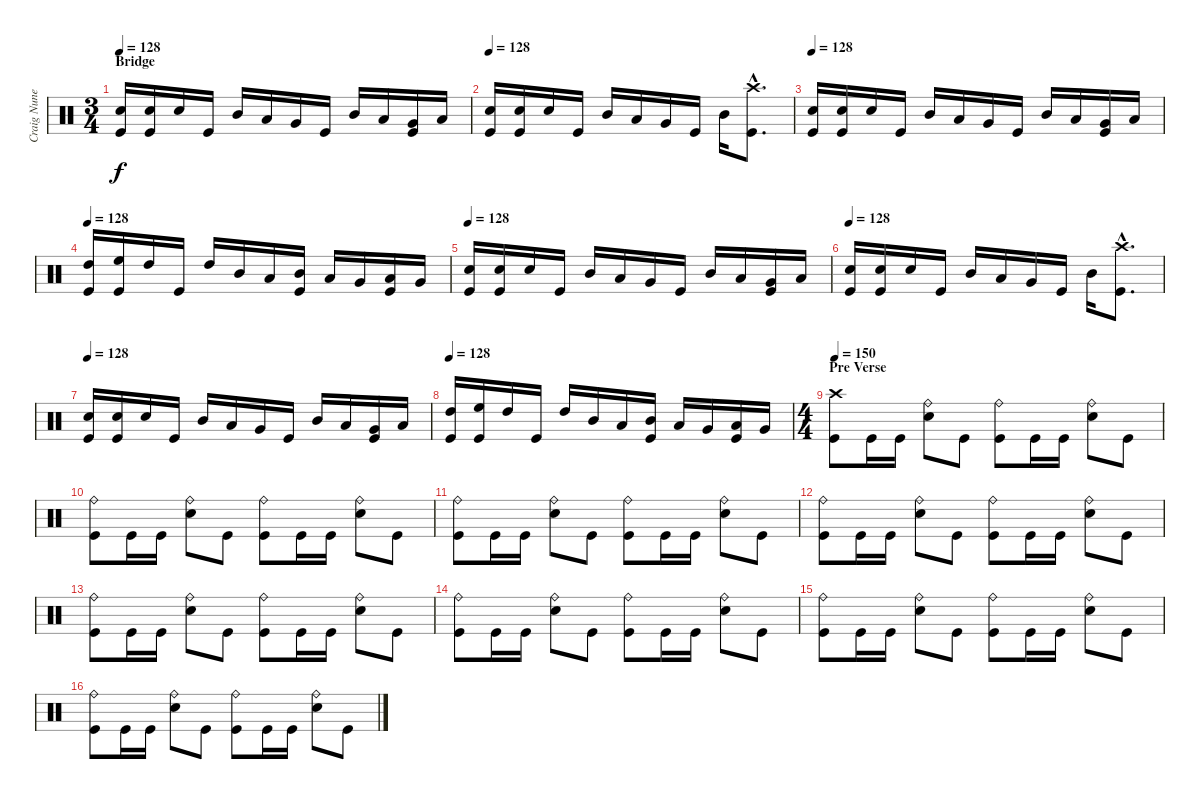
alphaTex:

\track ("Craig Nunenmacher" "Craig Nune") {instrument percussion}
\staff {score}
\articulation defaults
\ts (3 4)
\section ("" "Bridge")
\tempo 100
\tempo 128
\clef neutral
\ks c
("Snare (hit) 2" "Kick (hit)").16{dy f} ("Snare (hit) 2" "Kick (hit)").16 "Snare (hit) 2".16 "Kick (hit)".16 "Mid Tom (hit)".16 "Low Tom (hit)".16 "Very Low Tom (hit)".16 "Kick (hit)".16 "Mid Tom (hit)".16 "Low Tom (hit)".16 ("Very Low Tom (hit)" "Kick (hit)").16 "Low Tom (hit)".16 |
\tempo 128
("Snare (hit) 2" "Kick (hit)").16 ("Snare (hit) 2" "Kick (hit)").16 "Snare (hit) 2".16 "Kick (hit)".16 "Mid Tom (hit)".16 "Low Tom (hit)".16 "Very Low Tom (hit)".16 "Kick (hit)".16 "Mid Tom (hit)".16 ("Crash high (hit)"{hac} "Kick (hit)"{hac}).8{d} |
\tempo 128
("Snare (hit) 2" "Kick (hit)").16 ("Snare (hit) 2" "Kick (hit)").16 "Snare (hit) 2".16 "Kick (hit)".16 "Mid Tom (hit)".16 "Low Tom (hit)".16 "Very Low Tom (hit)".16 "Kick (hit)".16 "Mid Tom (hit)".16 "Low Tom (hit)".16 ("Very Low Tom (hit)" "Kick (hit)").16 "Low Tom (hit)".16 |
\tempo 128
("High Tom (hit)" "Kick (hit)").16 ("High Floor Tom (hit)" "Kick (hit)").16 "High Tom (hit)".16 "Kick (hit)".16 "High Tom (hit)".16 "Mid Tom (hit)".16 "Low Tom (hit)".16 ("Mid Tom (hit)" "Kick (hit)").16 "Low Tom (hit)".16 "Very Low Tom (hit)".16 ("Low Tom (hit)" "Kick (hit)").16 "Very Low Tom (hit)".16 |
\tempo 128
("Snare (hit) 2" "Kick (hit)").16 ("Snare (hit) 2" "Kick (hit)").16 "Snare (hit) 2".16 "Kick (hit)".16 "Mid Tom (hit)".16 "Low Tom (hit)".16 "Very Low Tom (hit)".16 "Kick (hit)".16 "Mid Tom (hit)".16 "Low Tom (hit)".16 ("Very Low Tom (hit)" "Kick (hit)").16 "Low Tom (hit)".16 |
\tempo 128
("Snare (hit) 2" "Kick (hit)").16 ("Snare (hit) 2" "Kick (hit)").16 "Snare (hit) 2".16 "Kick (hit)".16 "Mid Tom (hit)".16 "Low Tom (hit)".16 "Very Low Tom (hit)".16 "Kick (hit)".16 "Mid Tom (hit)".16 ("Crash high (hit)"{hac} "Kick (hit)"{hac}).8{d} |
\tempo 128
("Snare (hit) 2" "Kick (hit)").16 ("Snare (hit) 2" "Kick (hit)").16 "Snare (hit) 2".16 "Kick (hit)".16 "Mid Tom (hit)".16 "Low Tom (hit)".16 "Very Low Tom (hit)".16 "Kick (hit)".16 "Mid Tom (hit)".16 "Low Tom (hit)".16 ("Very Low Tom (hit)" "Kick (hit)").16 "Low Tom (hit)".16 |
\tempo 128
("High Tom (hit)" "Kick (hit)").16 ("High Floor Tom (hit)" "Kick (hit)").16 "High Tom (hit)".16 "Kick (hit)".16 "High Tom (hit)".16 "Mid Tom (hit)".16 "Low Tom (hit)".16 ("Mid Tom (hit)" "Kick (hit)").16 "Low Tom (hit)".16 "Very Low Tom (hit)".16 ("Low Tom (hit)" "Kick (hit)").16 "Very Low Tom (hit)".16 |
\ts (4 4)
\section ("" "Pre Verse")
\tempo 150
("Crash high (hit)" "Kick (hit)").8 "Kick (hit)".16 "Kick (hit)".16 ("Ride (bell)" "Snare (hit) 2").8 "Kick (hit)".8 ("Ride (bell)" "Kick (hit)").8 "Kick (hit)".16 "Kick (hit)".16 ("Ride (bell)" "Snare (hit) 2").8 "Kick (hit)".8 |
("Ride (bell)" "Kick (hit)").8 "Kick (hit)".16 "Kick (hit)".16 ("Ride (bell)" "Snare (hit) 2").8 "Kick (hit)".8 ("Ride (bell)" "Kick (hit)").8 "Kick (hit)".16 "Kick (hit)".16 ("Ride (bell)" "Snare (hit) 2").8 "Kick (hit)".8 |
("Ride (bell)" "Kick (hit)").8 "Kick (hit)".16 "Kick (hit)".16 ("Ride (bell)" "Snare (hit) 2").8 "Kick (hit)".8 ("Ride (bell)" "Kick (hit)").8 "Kick (hit)".16 "Kick (hit)".16 ("Ride (bell)" "Snare (hit) 2").8 "Kick (hit)".8 |
("Ride (bell)" "Kick (hit)").8 "Kick (hit)".16 "Kick (hit)".16 ("Ride (bell)" "Snare (hit) 2").8 "Kick (hit)".8 ("Ride (bell)" "Kick (hit)").8 "Kick (hit)".16 "Kick (hit)".16 ("Ride (bell)" "Snare (hit) 2").8 "Kick (hit)".8 |
("Ride (bell)" "Kick (hit)").8 "Kick (hit)".16 "Kick (hit)".16 ("Ride (bell)" "Snare (hit) 2").8 "Kick (hit)".8 ("Ride (bell)" "Kick (hit)").8 "Kick (hit)".16 "Kick (hit)".16 ("Ride (bell)" "Snare (hit) 2").8 "Kick (hit)".8 |
("Ride (bell)" "Kick (hit)").8 "Kick (hit)".16 "Kick (hit)".16 ("Ride (bell)" "Snare (hit) 2").8 "Kick (hit)".8 ("Ride (bell)" "Kick (hit)").8 "Kick (hit)".16 "Kick (hit)".16 ("Ride (bell)" "Snare (hit) 2").8 "Kick (hit)".8 |
("Ride (bell)" "Kick (hit)").8 "Kick (hit)".16 "Kick (hit)".16 ("Ride (bell)" "Snare (hit) 2").8 "Kick (hit)".8 ("Ride (bell)" "Kick (hit)").8 "Kick (hit)".16 "Kick (hit)".16 ("Ride (bell)" "Snare (hit) 2").8 "Kick (hit)".8 |
("Ride (bell)" "Kick (hit)").8 "Kick (hit)".16 "Kick (hit)".16 ("Ride (bell)" "Snare (hit) 2").8 "Kick (hit)".8 ("Ride (bell)" "Kick (hit)").8 "Kick (hit)".16 "Kick (hit)".16 ("Ride (bell)" "Snare (hit) 2").8 "Kick (hit)".8
